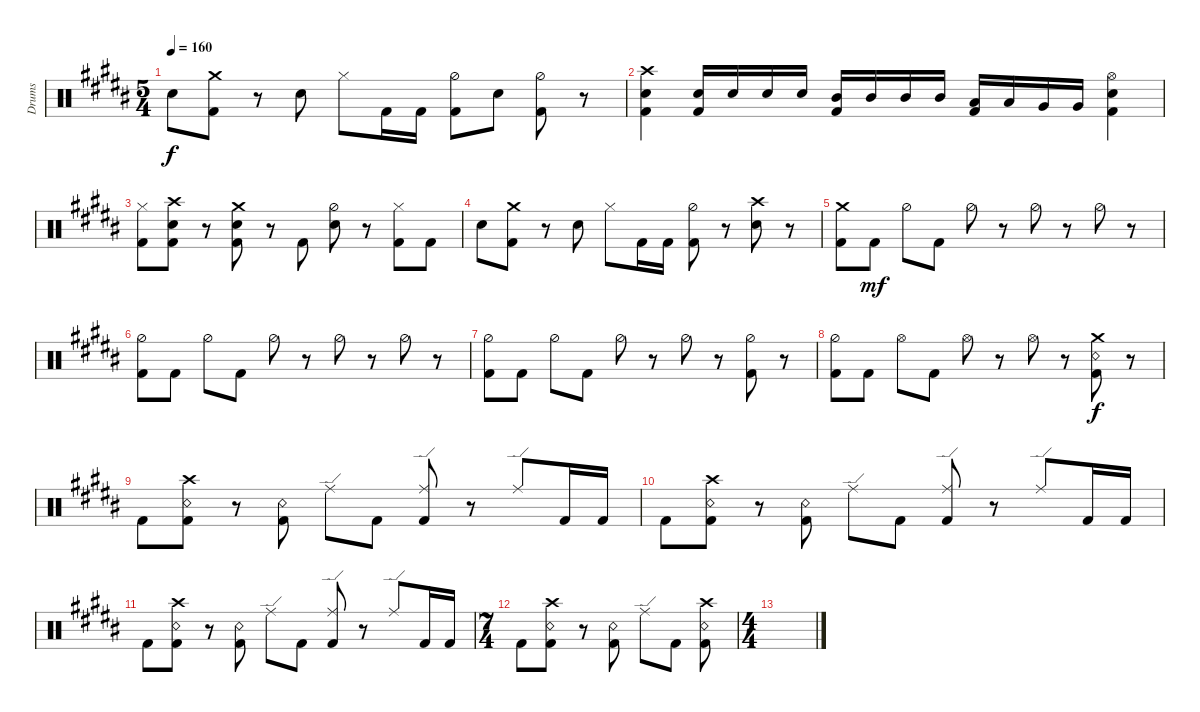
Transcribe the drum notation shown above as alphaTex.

\bracketExtendMode groupsimilarinstruments
\otherSystemsTrackNameOrientation horizontal
\track ("Drumkit" "Drums") {instrument percussion}
\staff {score}
\articulation defaults
\ts (5 4)
\tempo 160
\clef neutral
\ks b "Snare (hit) 2"{acc bb}.8{dy f beam Down}
("Kick (hit) 2"{acc bb} "Crash medium (hit)"{acc bb}).8{beam Down} r.8{beam Down} "Snare (hit) 2"{acc bb}.8{beam Down} "Hi-Hat (closed)"{acc bb}.8{beam Down} "Kick (hit) 2"{acc bb}.16{beam Down} "Kick (hit) 2"{acc bb}.16{beam Down} ("Hi-Hat (half)"{acc bb} "Kick (hit) 2"{acc bb}).8{beam Down} "Snare (hit) 2"{acc bb}.8{beam Down} ("Hi-Hat (half)"{acc bb} "Kick (hit) 2"{acc bb}).8{beam Down} r.8{beam Down} |
("Crash high (hit)"{acc bb} "Snare (hit) 2"{acc bb} "Kick (hit) 2"{acc bb}).4{beam Down} ("Snare (hit) 2"{acc bb} "Kick (hit) 2"{acc bb}).16{beam Up} "Snare (hit) 2"{acc bb}.16{beam Up} "Snare (hit) 2"{acc bb}.16{beam Up} "Snare (hit) 2"{acc bb}.16{beam Up} ("Mid Tom (hit)"{acc bb} "Kick (hit) 2"{acc bb}).16{beam Up} "Mid Tom (hit)"{acc bb}.16{beam Up} "Mid Tom (hit)"{acc bb}.16{beam Up} "Mid Tom (hit)"{acc bb}.16{beam Up} ("Low Tom (hit)"{acc bb} "Kick (hit) 2"{acc bb}).16{beam Up} "Low Tom (hit)"{acc bb}.16{beam Up} "Very Low Tom (hit)"{acc bb}.16{beam Up} "Very Low Tom (hit)"{acc bb}.16{beam Up} ("Hi-Hat (open)"{acc bb} "Snare (hit) 2"{acc bb} "Kick (hit) 2"{acc bb}).4{beam Down} |
("Kick (hit) 2"{acc bb} "Hi-Hat (closed)"{acc bb}).8{beam Down} ("Kick (hit) 2"{acc bb} "Crash high (hit)"{acc bb} "Snare (hit) 2"{acc bb}).8{beam Down} r.8{beam Down} ("Crash medium (hit)"{acc bb} "Kick (hit) 2"{acc bb} "Snare (hit) 2"{acc bb}).8{beam Down} r.8{beam Down} "Kick (hit) 2"{acc bb}.8{beam Down} ("Snare (hit) 2"{acc bb} "Hi-Hat (half)"{acc bb}).8{beam Down} r.8{beam Down} ("Kick (hit) 2"{acc bb} "Hi-Hat (closed)"{acc bb}).8{beam Down} "Kick (hit) 2"{acc bb}.8{beam Down} |
"Snare (hit) 2"{acc bb}.8{beam Down} ("Kick (hit) 2"{acc bb} "Crash medium (hit)"{acc bb}).8{beam Down} r.8{beam Down} "Snare (hit) 2"{acc bb}.8{beam Down} "Hi-Hat (closed)"{acc bb}.8{beam Down} "Kick (hit) 2"{acc bb}.16{beam Down} "Kick (hit) 2"{acc bb}.16{beam Down} ("Hi-Hat (half)"{acc bb} "Kick (hit) 2"{acc bb}).8{beam Down} r.8{beam Down} ("Crash high (hit)"{acc bb} "Snare (hit) 2"{acc bb}).8{beam Down} r.8{beam Down} |
("Kick (hit) 2"{acc bb} "Crash medium (hit)"{acc bb}).8{beam Down} "Kick (hit) 2"{acc bb}.8{dy mf beam Down} "Hi-Hat (half)"{acc bb}.8{beam Down} "Kick (hit) 2"{acc bb}.8{beam Down} "Hi-Hat (half)"{acc bb}.8{beam Down} r.8{beam Down} "Hi-Hat (half)"{acc bb}.8{beam Down} r.8{beam Down} "Hi-Hat (half)"{acc bb}.8{beam Down} r.8{beam Down} |
("Kick (hit) 2"{acc bb} "Hi-Hat (half)"{acc bb}).8{beam Down} "Kick (hit) 2"{acc bb}.8{beam Down} "Hi-Hat (half)"{acc bb}.8{beam Down} "Kick (hit) 2"{acc bb}.8{beam Down} "Hi-Hat (half)"{acc bb}.8{beam Down} r.8{beam Down} "Hi-Hat (half)"{acc bb}.8{beam Down} r.8{beam Down} "Hi-Hat (half)"{acc bb}.8{beam Down} r.8{beam Down} |
("Kick (hit) 2"{acc bb} "Hi-Hat (half)"{acc bb}).8{beam Down} "Kick (hit) 2"{acc bb}.8{beam Down} "Hi-Hat (half)"{acc bb}.8{beam Down} "Kick (hit) 2"{acc bb}.8{beam Down} "Hi-Hat (half)"{acc bb}.8{beam Down} r.8{beam Down} "Hi-Hat (half)"{acc bb}.8{beam Down} r.8{beam Down} ("Hi-Hat (half)"{acc bb} "Kick (hit) 2"{acc bb}).8{beam Down} r.8{beam Down} |
("Kick (hit) 2"{acc bb} "Hi-Hat (half)"{acc bb}).8{beam Down} "Kick (hit) 2"{acc bb}.8{beam Down} "Hi-Hat (open)"{acc bb}.8{beam Down} "Kick (hit) 2"{acc bb}.8{beam Down} "Hi-Hat (open)"{acc bb}.8{beam Down} r.8{beam Down} "Hi-Hat (open)"{acc bb}.8{beam Down} r.8{beam Down} ("Kick (hit) 2"{acc bb} "Snare (rim shot)"{acc bb} "Crash medium (hit)"{acc bb}).8{dy f beam Down} r.8{beam Down} |
"Kick (hit) 2"{acc bb}.8{beam Down} ("Kick (hit) 2"{acc bb} "Snare (rim shot)"{acc bb} "Crash high (hit)"{acc bb}).8{beam Down} r.8{beam Down} ("Kick (hit) 2"{acc bb} "Snare (rim shot)"{acc bb}).8{beam Down} "Ride (edge)"{acc bb}.8{beam Down} "Kick (hit) 2"{acc bb}.8{beam Down} ("Kick (hit) 2"{acc bb} "Ride (edge)"{acc bb}).8{beam Up} r.8{beam Up} "Ride (edge)"{acc bb}.8{beam Up} "Kick (hit) 2"{acc bb}.16{beam Up} "Kick (hit) 2"{acc bb}.16{beam Up} |
"Kick (hit) 2"{acc bb}.8{beam Down} ("Kick (hit) 2"{acc bb} "Snare (rim shot)"{acc bb} "Crash high (hit)"{acc bb}).8{beam Down} r.8{beam Down} ("Kick (hit) 2"{acc bb} "Snare (rim shot)"{acc bb}).8{beam Down} "Ride (edge)"{acc bb}.8{beam Down} "Kick (hit) 2"{acc bb}.8{beam Down} ("Kick (hit) 2"{acc bb} "Ride (edge)"{acc bb}).8{beam Up} r.8{beam Up} "Ride (edge)"{acc bb}.8{beam Up} "Kick (hit) 2"{acc bb}.16{beam Up} "Kick (hit) 2"{acc bb}.16{beam Up} |
"Kick (hit) 2"{acc bb}.8{beam Down} ("Kick (hit) 2"{acc bb} "Snare (rim shot)"{acc bb} "Crash high (hit)"{acc bb}).8{beam Down} r.8{beam Down} ("Kick (hit) 2"{acc bb} "Snare (rim shot)"{acc bb}).8{beam Down} "Ride (edge)"{acc bb}.8{beam Down} "Kick (hit) 2"{acc bb}.8{beam Down} ("Kick (hit) 2"{acc bb} "Ride (edge)"{acc bb}).8{beam Up} r.8{beam Up} "Ride (edge)"{acc bb}.8{beam Up} "Kick (hit) 2"{acc bb}.16{beam Up} "Kick (hit) 2"{acc bb}.16{beam Up} |
\ts (7 4)
"Kick (hit) 2"{acc bb}.8{beam Down} ("Kick (hit) 2"{acc bb} "Snare (rim shot)"{acc bb} "Crash high (hit)"{acc bb}).8{beam Down} r.8{beam Down} ("Kick (hit) 2"{acc bb} "Snare (rim shot)"{acc bb}).8{beam Down} "Ride (edge)"{acc bb}.8{beam Down} "Kick (hit) 2"{acc bb}.8{beam Down} ("Kick (hit) 2"{acc bb} "Crash high (hit)"{acc bb} "Snare (rim shot)"{acc bb}).8{beam Down} |
\ts (4 4)
